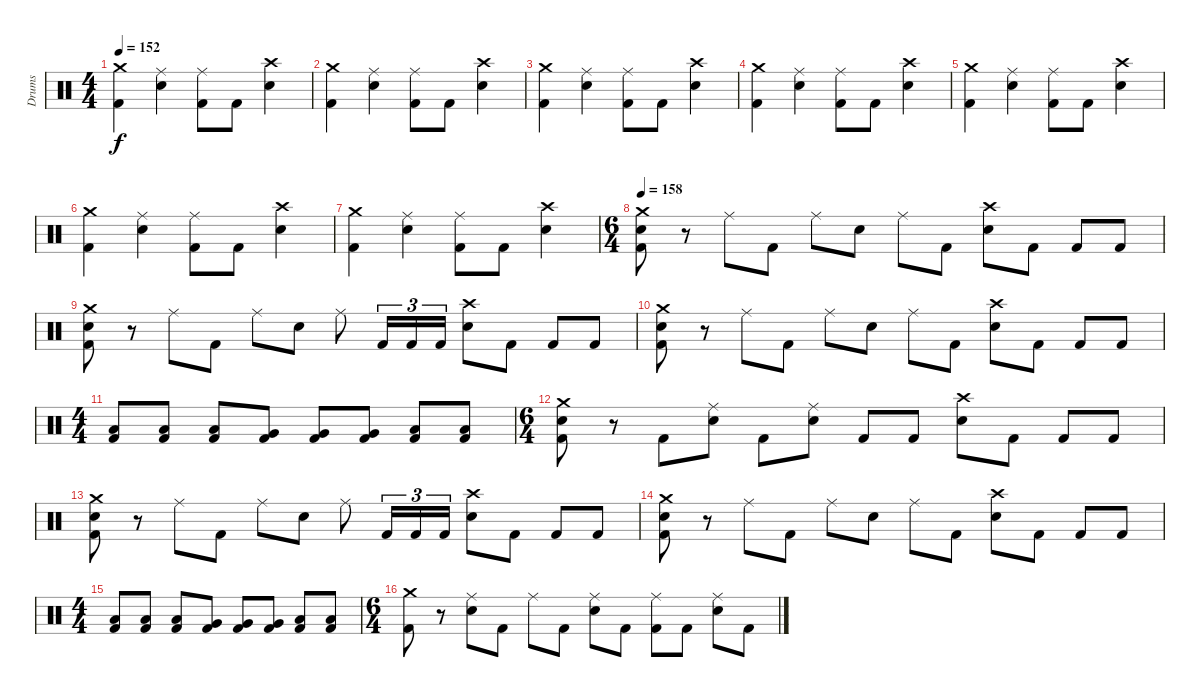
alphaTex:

\track ("Drums" "Drums") {instrument percussion}
\staff {score}
\articulation defaults
\ts (4 4)
\tempo 152
\clef neutral
\ks c
("Crash medium (hit)" "Kick (hit) 2").4{dy f} ("Ride (middle)" "Electric Snare (hit)").4 ("Ride (middle)" "Kick (hit) 2").8 "Kick (hit) 2".8 ("Crash high (hit)" "Electric Snare (hit)").4 |
("Crash medium (hit)" "Kick (hit) 2").4 ("Ride (middle)" "Electric Snare (hit)").4 ("Ride (middle)" "Kick (hit) 2").8 "Kick (hit) 2".8 ("Crash high (hit)" "Electric Snare (hit)").4 |
("Crash medium (hit)" "Kick (hit) 2").4 ("Ride (middle)" "Electric Snare (hit)").4 ("Ride (middle)" "Kick (hit) 2").8 "Kick (hit) 2".8 ("Crash high (hit)" "Electric Snare (hit)").4 |
("Crash medium (hit)" "Kick (hit) 2").4 ("Ride (middle)" "Electric Snare (hit)").4 ("Ride (middle)" "Kick (hit) 2").8 "Kick (hit) 2".8 ("Crash high (hit)" "Electric Snare (hit)").4 |
("Crash medium (hit)" "Kick (hit) 2").4 ("Ride (middle)" "Electric Snare (hit)").4 ("Ride (middle)" "Kick (hit) 2").8 "Kick (hit) 2".8 ("Crash high (hit)" "Electric Snare (hit)").4 |
("Crash medium (hit)" "Kick (hit) 2").4 ("Ride (middle)" "Electric Snare (hit)").4 ("Ride (middle)" "Kick (hit) 2").8 "Kick (hit) 2".8 ("Crash high (hit)" "Electric Snare (hit)").4 |
("Crash medium (hit)" "Kick (hit) 2").4 ("Ride (middle)" "Electric Snare (hit)").4 ("Ride (middle)" "Kick (hit) 2").8 "Kick (hit) 2".8 ("Crash high (hit)" "Electric Snare (hit)").4 |
\ts (6 4)
\section ("" "")
\tempo 158
("Crash medium (hit)" "Electric Snare (hit)" "Kick (hit) 2").8 r.8 "Ride (middle)".8 "Kick (hit) 2".8 "Ride (middle)".8 "Electric Snare (hit)".8 "Ride (middle)".8 "Kick (hit) 2".8 ("Crash high (hit)" "Electric Snare (hit)").8 "Kick (hit) 2".8 "Kick (hit) 2".8 "Kick (hit) 2".8 |
("Crash medium (hit)" "Electric Snare (hit)" "Kick (hit) 2").8 r.8 "Ride (middle)".8 "Kick (hit) 2".8 "Ride (middle)".8 "Electric Snare (hit)".8 "Ride (middle)".8 "Kick (hit) 2".16{tu (3 2)} "Kick (hit) 2".16{tu (3 2)} "Kick (hit) 2".16{tu (3 2)} ("Crash high (hit)" "Electric Snare (hit)").8 "Kick (hit) 2".8 "Kick (hit) 2".8 "Kick (hit) 2".8 |
("Crash medium (hit)" "Electric Snare (hit)" "Kick (hit) 2").8 r.8 "Ride (middle)".8 "Kick (hit) 2".8 "Ride (middle)".8 "Electric Snare (hit)".8 "Ride (middle)".8 "Kick (hit) 2".8 ("Crash high (hit)" "Electric Snare (hit)").8 "Kick (hit) 2".8 "Kick (hit) 2".8 "Kick (hit) 2".8 |
\ts (4 4)
("Low Tom (hit)" "Kick (hit) 2").8 ("Low Tom (hit)" "Kick (hit) 2").8 ("Low Tom (hit)" "Kick (hit) 2").8 ("Very Low Tom (hit)" "Kick (hit) 2").8 ("Very Low Tom (hit)" "Kick (hit) 2").8 ("Very Low Tom (hit)" "Kick (hit) 2").8 ("Low Floor Tom (hit)" "Kick (hit) 2").8 ("Low Floor Tom (hit)" "Kick (hit) 2").8 |
\ts (6 4)
("Crash medium (hit)" "Electric Snare (hit)" "Kick (hit) 2").8 r.8 "Kick (hit) 2".8 ("Ride (middle)" "Electric Snare (hit)").8 "Kick (hit) 2".8 ("Ride (middle)" "Electric Snare (hit)").8 "Kick (hit) 2".8 "Kick (hit) 2".8 ("Crash high (hit)" "Electric Snare (hit)").8 "Kick (hit) 2".8 "Kick (hit) 2".8 "Kick (hit) 2".8 |
("Crash medium (hit)" "Electric Snare (hit)" "Kick (hit) 2").8 r.8 "Ride (middle)".8 "Kick (hit) 2".8 "Ride (middle)".8 "Electric Snare (hit)".8 "Ride (middle)".8 "Kick (hit) 2".16{tu (3 2)} "Kick (hit) 2".16{tu (3 2)} "Kick (hit) 2".16{tu (3 2)} ("Crash high (hit)" "Electric Snare (hit)").8 "Kick (hit) 2".8 "Kick (hit) 2".8 "Kick (hit) 2".8 |
("Crash medium (hit)" "Electric Snare (hit)" "Kick (hit) 2").8 r.8 "Ride (middle)".8 "Kick (hit) 2".8 "Ride (middle)".8 "Electric Snare (hit)".8 "Ride (middle)".8 "Kick (hit) 2".8 ("Crash high (hit)" "Electric Snare (hit)").8 "Kick (hit) 2".8 "Kick (hit) 2".8 "Kick (hit) 2".8 |
\ts (4 4)
("Low Tom (hit)" "Kick (hit) 2").8 ("Low Tom (hit)" "Kick (hit) 2").8 ("Low Tom (hit)" "Kick (hit) 2").8 ("Very Low Tom (hit)" "Kick (hit) 2").8 ("Very Low Tom (hit)" "Kick (hit) 2").8 ("Very Low Tom (hit)" "Kick (hit) 2").8 ("Low Floor Tom (hit)" "Kick (hit) 2").8 ("Low Floor Tom (hit)" "Kick (hit) 2").8 |
\ts (6 4)
\section ("" "")
("Crash medium (hit)" "Kick (hit) 2").8 r.8 ("Ride (middle)" "Electric Snare (hit)").8 "Kick (hit) 2".8 "Ride (middle)".8 "Kick (hit) 2".8 ("Ride (middle)" "Electric Snare (hit)").8 "Kick (hit) 2".8 ("Ride (middle)" "Kick (hit) 2").8 "Kick (hit) 2".8 ("Ride (middle)" "Electric Snare (hit)").8 "Kick (hit) 2".8
